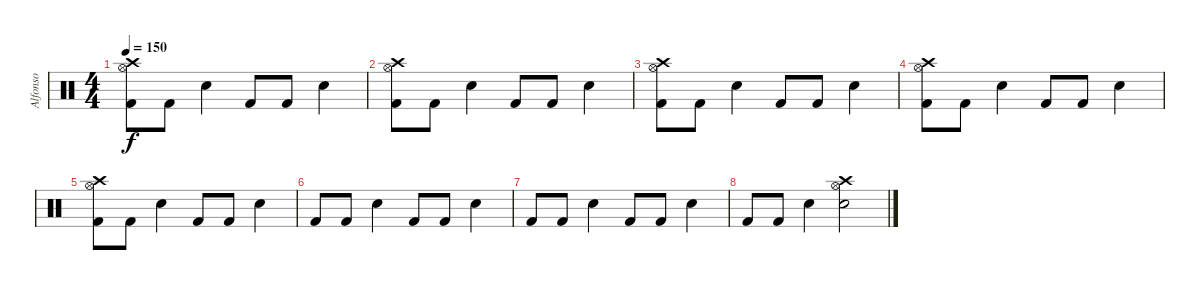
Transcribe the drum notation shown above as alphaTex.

\track ("Alfonso" "Alfonso") {instrument percussion}
\staff {score}
\articulation defaults
\ts (4 4)
\tempo 150
\clef neutral
\ks c
("Crash high (hit)" "Hi-Hat (open)" "Kick (hit) 2").8{dy f} "Kick (hit) 2".8 "Electric Snare (hit)".4 "Kick (hit) 2".8 "Kick (hit) 2".8 "Electric Snare (hit)".4 |
("Crash high (hit)" "Hi-Hat (open)" "Kick (hit) 2").8 "Kick (hit) 2".8 "Electric Snare (hit)".4 "Kick (hit) 2".8 "Kick (hit) 2".8 "Electric Snare (hit)".4 |
("Crash high (hit)" "Hi-Hat (open)" "Kick (hit) 2").8 "Kick (hit) 2".8 "Electric Snare (hit)".4 "Kick (hit) 2".8 "Kick (hit) 2".8 "Electric Snare (hit)".4 |
("Crash high (hit)" "Hi-Hat (open)" "Kick (hit) 2").8 "Kick (hit) 2".8 "Electric Snare (hit)".4 "Kick (hit) 2".8 "Kick (hit) 2".8 "Electric Snare (hit)".4 |
("Crash high (hit)" "Hi-Hat (open)" "Kick (hit) 2").8 "Kick (hit) 2".8 "Electric Snare (hit)".4 "Kick (hit) 2".8 "Kick (hit) 2".8 "Electric Snare (hit)".4 |
"Kick (hit) 2".8 "Kick (hit) 2".8 "Electric Snare (hit)".4 "Kick (hit) 2".8 "Kick (hit) 2".8 "Electric Snare (hit)".4 |
"Kick (hit) 2".8 "Kick (hit) 2".8 "Electric Snare (hit)".4 "Kick (hit) 2".8 "Kick (hit) 2".8 "Electric Snare (hit)".4 |
"Kick (hit) 2".8 "Kick (hit) 2".8 "Electric Snare (hit)".4 ("Electric Snare (hit)" "Crash high (hit)" "Hi-Hat (open)").2
